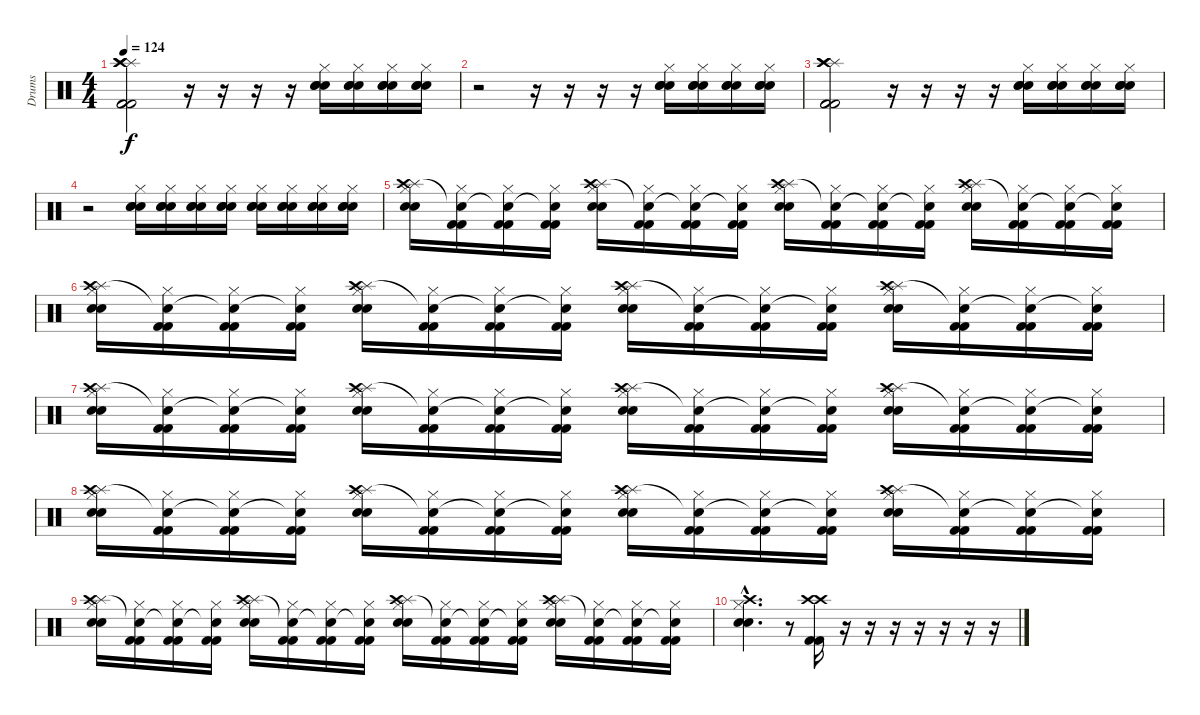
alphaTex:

\track ("Drums" "Drums") {instrument percussion}
\staff {score}
\articulation defaults
\ts (4 4)
\tempo 124
\clef neutral
\ks c
("Splash (hit)" "Crash high (hit)" "Crash high (hit)" "Kick (hit) 2" "Kick (hit) 2" "Kick (hit) 2").2{dy f} r.16 r.16 r.16 r.16 ("Hi-Hat (closed)" "Snare (hit) 2" "Snare (hit) 2" "Snare (hit) 2").16 ("Hi-Hat (closed)" "Snare (hit) 2" "Snare (hit) 2" "Snare (hit) 2").16 ("Hi-Hat (closed)" "Snare (hit) 2" "Snare (hit) 2" "Snare (hit) 2").16 ("Hi-Hat (closed)" "Snare (hit) 2" "Snare (hit) 2" "Snare (hit) 2").16 |
r.2 r.16 r.16 r.16 r.16 ("Hi-Hat (closed)" "Snare (hit) 2" "Snare (hit) 2" "Snare (hit) 2").16 ("Hi-Hat (closed)" "Snare (hit) 2" "Snare (hit) 2" "Snare (hit) 2").16 ("Hi-Hat (closed)" "Snare (hit) 2" "Snare (hit) 2" "Snare (hit) 2").16 ("Hi-Hat (closed)" "Snare (hit) 2" "Snare (hit) 2" "Snare (hit) 2").16 |
("Splash (hit)" "Crash high (hit)" "Crash high (hit)" "Kick (hit) 2" "Kick (hit) 2" "Kick (hit) 2").2 r.16 r.16 r.16 r.16 ("Hi-Hat (closed)" "Snare (hit) 2" "Snare (hit) 2" "Snare (hit) 2").16 ("Hi-Hat (closed)" "Snare (hit) 2" "Snare (hit) 2" "Snare (hit) 2").16 ("Hi-Hat (closed)" "Snare (hit) 2" "Snare (hit) 2" "Snare (hit) 2").16 ("Hi-Hat (closed)" "Snare (hit) 2" "Snare (hit) 2" "Snare (hit) 2").16 |
r.2 ("Hi-Hat (closed)" "Snare (hit) 2" "Snare (hit) 2" "Snare (hit) 2").16 ("Hi-Hat (closed)" "Snare (hit) 2" "Snare (hit) 2" "Snare (hit) 2").16 ("Hi-Hat (closed)" "Snare (hit) 2" "Snare (hit) 2" "Snare (hit) 2").16 ("Hi-Hat (closed)" "Snare (hit) 2" "Snare (hit) 2" "Snare (hit) 2").16 ("Hi-Hat (closed)" "Snare (hit) 2" "Snare (hit) 2" "Snare (hit) 2").16 ("Hi-Hat (closed)" "Snare (hit) 2" "Snare (hit) 2" "Snare (hit) 2").16 ("Hi-Hat (closed)" "Snare (hit) 2" "Snare (hit) 2" "Snare (hit) 2").16 ("Hi-Hat (closed)" "Snare (hit) 2" "Snare (hit) 2" "Snare (hit) 2").16 |
("Splash (hit)" "Crash high (hit)" "Hi-Hat (closed)" "Snare (hit) 2" "Snare (hit) 2").16 ("Snare (hit)"{t} "Hi-Hat (closed)" "Kick (hit) 2" "Kick (hit) 2").16 ("Snare (hit)"{t} "Hi-Hat (closed)" "Kick (hit) 2" "Kick (hit) 2").16 ("Snare (hit)"{t} "Hi-Hat (closed)" "Kick (hit) 2" "Kick (hit) 2").16 ("Splash (hit)" "Crash high (hit)" "Hi-Hat (closed)" "Snare (hit) 2" "Snare (hit) 2").16 ("Snare (hit)"{t} "Hi-Hat (closed)" "Kick (hit) 2" "Kick (hit) 2").16 ("Snare (hit)"{t} "Hi-Hat (closed)" "Kick (hit) 2" "Kick (hit) 2").16 ("Snare (hit)"{t} "Hi-Hat (closed)" "Kick (hit) 2" "Kick (hit) 2").16 ("Splash (hit)" "Crash high (hit)" "Hi-Hat (closed)" "Snare (hit) 2" "Snare (hit) 2").16 ("Snare (hit)"{t} "Hi-Hat (closed)" "Kick (hit) 2" "Kick (hit) 2").16 ("Snare (hit)"{t} "Hi-Hat (closed)" "Kick (hit) 2" "Kick (hit) 2").16 ("Snare (hit)"{t} "Hi-Hat (closed)" "Kick (hit) 2" "Kick (hit) 2").16 ("Splash (hit)" "Crash high (hit)" "Hi-Hat (closed)" "Snare (hit) 2" "Snare (hit) 2").16 ("Snare (hit)"{t} "Hi-Hat (closed)" "Kick (hit) 2" "Kick (hit) 2").16 ("Snare (hit)"{t} "Hi-Hat (closed)" "Kick (hit) 2" "Kick (hit) 2").16 ("Snare (hit)"{t} "Hi-Hat (closed)" "Kick (hit) 2" "Kick (hit) 2").16 |
("Splash (hit)" "Crash high (hit)" "Hi-Hat (closed)" "Snare (hit) 2" "Snare (hit) 2").16 ("Snare (hit)"{t} "Hi-Hat (closed)" "Kick (hit) 2" "Kick (hit) 2").16 ("Snare (hit)"{t} "Hi-Hat (closed)" "Kick (hit) 2" "Kick (hit) 2").16 ("Snare (hit)"{t} "Hi-Hat (closed)" "Kick (hit) 2" "Kick (hit) 2").16 ("Splash (hit)" "Crash high (hit)" "Hi-Hat (closed)" "Snare (hit) 2" "Snare (hit) 2").16 ("Snare (hit)"{t} "Hi-Hat (closed)" "Kick (hit) 2" "Kick (hit) 2").16 ("Snare (hit)"{t} "Hi-Hat (closed)" "Kick (hit) 2" "Kick (hit) 2").16 ("Snare (hit)"{t} "Hi-Hat (closed)" "Kick (hit) 2" "Kick (hit) 2").16 ("Splash (hit)" "Crash high (hit)" "Hi-Hat (closed)" "Snare (hit) 2" "Snare (hit) 2").16 ("Snare (hit)"{t} "Hi-Hat (closed)" "Kick (hit) 2" "Kick (hit) 2").16 ("Snare (hit)"{t} "Hi-Hat (closed)" "Kick (hit) 2" "Kick (hit) 2").16 ("Snare (hit)"{t} "Hi-Hat (closed)" "Kick (hit) 2" "Kick (hit) 2").16 ("Splash (hit)" "Crash high (hit)" "Hi-Hat (closed)" "Snare (hit) 2" "Snare (hit) 2").16 ("Snare (hit)"{t} "Hi-Hat (closed)" "Kick (hit) 2" "Kick (hit) 2").16 ("Snare (hit)"{t} "Hi-Hat (closed)" "Kick (hit) 2" "Kick (hit) 2").16 ("Snare (hit)"{t} "Hi-Hat (closed)" "Kick (hit) 2" "Kick (hit) 2").16 |
("Splash (hit)" "Crash high (hit)" "Hi-Hat (closed)" "Snare (hit) 2" "Snare (hit) 2").16 ("Snare (hit)"{t} "Hi-Hat (closed)" "Kick (hit) 2" "Kick (hit) 2").16 ("Snare (hit)"{t} "Hi-Hat (closed)" "Kick (hit) 2" "Kick (hit) 2").16 ("Snare (hit)"{t} "Hi-Hat (closed)" "Kick (hit) 2" "Kick (hit) 2").16 ("Splash (hit)" "Crash high (hit)" "Hi-Hat (closed)" "Snare (hit) 2" "Snare (hit) 2").16 ("Snare (hit)"{t} "Hi-Hat (closed)" "Kick (hit) 2" "Kick (hit) 2").16 ("Snare (hit)"{t} "Hi-Hat (closed)" "Kick (hit) 2" "Kick (hit) 2").16 ("Snare (hit)"{t} "Hi-Hat (closed)" "Kick (hit) 2" "Kick (hit) 2").16 ("Splash (hit)" "Crash high (hit)" "Hi-Hat (closed)" "Snare (hit) 2" "Snare (hit) 2").16 ("Snare (hit)"{t} "Hi-Hat (closed)" "Kick (hit) 2" "Kick (hit) 2").16 ("Snare (hit)"{t} "Hi-Hat (closed)" "Kick (hit) 2" "Kick (hit) 2").16 ("Snare (hit)"{t} "Hi-Hat (closed)" "Kick (hit) 2" "Kick (hit) 2").16 ("Splash (hit)" "Crash high (hit)" "Hi-Hat (closed)" "Snare (hit) 2" "Snare (hit) 2").16 ("Snare (hit)"{t} "Hi-Hat (closed)" "Kick (hit) 2" "Kick (hit) 2").16 ("Snare (hit)"{t} "Hi-Hat (closed)" "Kick (hit) 2" "Kick (hit) 2").16 ("Snare (hit)"{t} "Hi-Hat (closed)" "Kick (hit) 2" "Kick (hit) 2").16 |
("Splash (hit)" "Crash high (hit)" "Hi-Hat (closed)" "Snare (hit) 2" "Snare (hit) 2").16 ("Snare (hit)"{t} "Hi-Hat (closed)" "Kick (hit) 2" "Kick (hit) 2").16 ("Snare (hit)"{t} "Hi-Hat (closed)" "Kick (hit) 2" "Kick (hit) 2").16 ("Snare (hit)"{t} "Hi-Hat (closed)" "Kick (hit) 2" "Kick (hit) 2").16 ("Splash (hit)" "Crash high (hit)" "Hi-Hat (closed)" "Snare (hit) 2" "Snare (hit) 2").16 ("Snare (hit)"{t} "Hi-Hat (closed)" "Kick (hit) 2" "Kick (hit) 2").16 ("Snare (hit)"{t} "Hi-Hat (closed)" "Kick (hit) 2" "Kick (hit) 2").16 ("Snare (hit)"{t} "Hi-Hat (closed)" "Kick (hit) 2" "Kick (hit) 2").16 ("Splash (hit)" "Crash high (hit)" "Hi-Hat (closed)" "Snare (hit) 2" "Snare (hit) 2").16 ("Snare (hit)"{t} "Hi-Hat (closed)" "Kick (hit) 2" "Kick (hit) 2").16 ("Snare (hit)"{t} "Hi-Hat (closed)" "Kick (hit) 2" "Kick (hit) 2").16 ("Snare (hit)"{t} "Hi-Hat (closed)" "Kick (hit) 2" "Kick (hit) 2").16 ("Splash (hit)" "Crash high (hit)" "Hi-Hat (closed)" "Snare (hit) 2" "Snare (hit) 2").16 ("Snare (hit)"{t} "Hi-Hat (closed)" "Kick (hit) 2" "Kick (hit) 2").16 ("Snare (hit)"{t} "Hi-Hat (closed)" "Kick (hit) 2" "Kick (hit) 2").16 ("Snare (hit)"{t} "Hi-Hat (closed)" "Kick (hit) 2" "Kick (hit) 2").16 |
("Splash (hit)" "Crash high (hit)" "Hi-Hat (closed)" "Snare (hit) 2" "Snare (hit) 2").16 ("Snare (hit)"{t} "Hi-Hat (closed)" "Kick (hit) 2" "Kick (hit) 2").16 ("Snare (hit)"{t} "Hi-Hat (closed)" "Kick (hit) 2" "Kick (hit) 2").16 ("Snare (hit)"{t} "Hi-Hat (closed)" "Kick (hit) 2" "Kick (hit) 2").16 ("Splash (hit)" "Crash high (hit)" "Hi-Hat (closed)" "Snare (hit) 2" "Snare (hit) 2").16 ("Snare (hit)"{t} "Hi-Hat (closed)" "Kick (hit) 2" "Kick (hit) 2").16 ("Snare (hit)"{t} "Hi-Hat (closed)" "Kick (hit) 2" "Kick (hit) 2").16 ("Snare (hit)"{t} "Hi-Hat (closed)" "Kick (hit) 2" "Kick (hit) 2").16 ("Splash (hit)" "Crash high (hit)" "Hi-Hat (closed)" "Snare (hit) 2" "Snare (hit) 2").16 ("Snare (hit)"{t} "Hi-Hat (closed)" "Kick (hit) 2" "Kick (hit) 2").16 ("Snare (hit)"{t} "Hi-Hat (closed)" "Kick (hit) 2" "Kick (hit) 2").16 ("Snare (hit)"{t} "Hi-Hat (closed)" "Kick (hit) 2" "Kick (hit) 2").16 ("Splash (hit)" "Crash high (hit)" "Hi-Hat (closed)" "Snare (hit) 2" "Snare (hit) 2").16 ("Snare (hit)"{t} "Hi-Hat (closed)" "Kick (hit) 2" "Kick (hit) 2").16 ("Snare (hit)"{t} "Hi-Hat (closed)" "Kick (hit) 2" "Kick (hit) 2").16 ("Snare (hit)"{t} "Hi-Hat (closed)" "Kick (hit) 2" "Kick (hit) 2").16 |
("Crash high (hit)"{hac} "Hi-Hat (closed)"{hac} "Snare (hit) 2"{hac} "Snare (hit) 2"{hac}).4{d} r.8 ("Crash high (hit)" "Crash high (hit)" "Kick (hit) 2" "Kick (hit) 2").16 r.16 r.16 r.16 r.16 r.16 r.16 r.16
